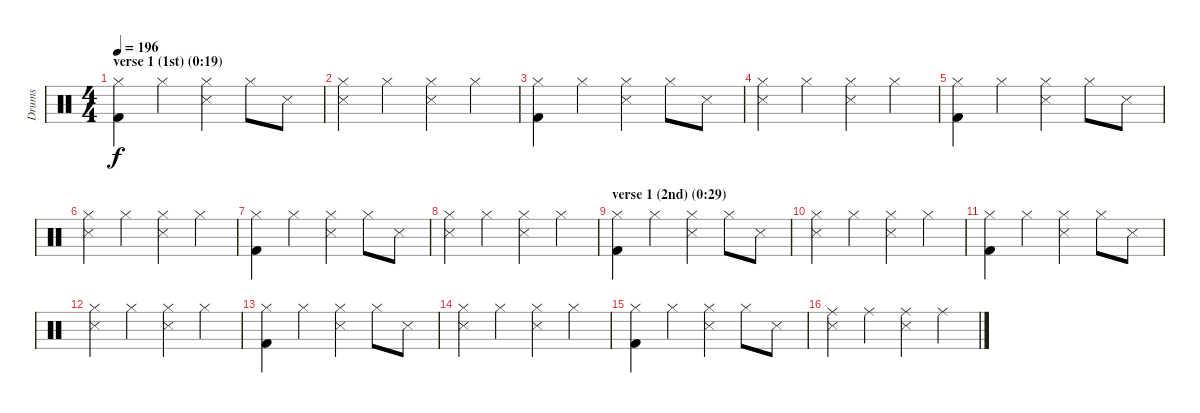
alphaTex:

\track ("Drums" "Drums") {instrument percussion}
\staff {score}
\articulation defaults
\ts (4 4)
\section ("" "verse 1 (1st) (0:19)")
\tempo 196
\clef neutral
\ks c
("Hi-Hat (closed)" "Kick (hit) 2").4{dy f} "Hi-Hat (closed)".4 ("Hi-Hat (closed)" "Snare (side stick) 3").4 "Hi-Hat (closed)".8 "Snare (side stick) 3".8 |
("Hi-Hat (closed)" "Snare (side stick) 3").4 "Hi-Hat (closed)".4 ("Hi-Hat (closed)" "Snare (side stick) 3").4 "Hi-Hat (closed)".4 |
("Hi-Hat (closed)" "Kick (hit) 2").4 "Hi-Hat (closed)".4 ("Hi-Hat (closed)" "Snare (side stick) 3").4 "Hi-Hat (closed)".8 "Snare (side stick) 3".8 |
("Hi-Hat (closed)" "Snare (side stick) 3").4 "Hi-Hat (closed)".4 ("Hi-Hat (closed)" "Snare (side stick) 3").4 "Hi-Hat (closed)".4 |
("Hi-Hat (closed)" "Kick (hit) 2").4 "Hi-Hat (closed)".4 ("Hi-Hat (closed)" "Snare (side stick) 3").4 "Hi-Hat (closed)".8 "Snare (side stick) 3".8 |
("Hi-Hat (closed)" "Snare (side stick) 3").4 "Hi-Hat (closed)".4 ("Hi-Hat (closed)" "Snare (side stick) 3").4 "Hi-Hat (closed)".4 |
("Hi-Hat (closed)" "Kick (hit) 2").4 "Hi-Hat (closed)".4 ("Hi-Hat (closed)" "Snare (side stick) 3").4 "Hi-Hat (closed)".8 "Snare (side stick) 3".8 |
("Hi-Hat (closed)" "Snare (side stick) 3").4 "Hi-Hat (closed)".4 ("Hi-Hat (closed)" "Snare (side stick) 3").4 "Hi-Hat (closed)".4 |
\section ("" "verse 1 (2nd) (0:29)")
("Hi-Hat (closed)" "Kick (hit) 2").4 "Hi-Hat (closed)".4 ("Hi-Hat (closed)" "Snare (side stick) 3").4 "Hi-Hat (closed)".8 "Snare (side stick) 3".8 |
("Hi-Hat (closed)" "Snare (side stick) 3").4 "Hi-Hat (closed)".4 ("Hi-Hat (closed)" "Snare (side stick) 3").4 "Hi-Hat (closed)".4 |
("Hi-Hat (closed)" "Kick (hit) 2").4 "Hi-Hat (closed)".4 ("Hi-Hat (closed)" "Snare (side stick) 3").4 "Hi-Hat (closed)".8 "Snare (side stick) 3".8 |
("Hi-Hat (closed)" "Snare (side stick) 3").4 "Hi-Hat (closed)".4 ("Hi-Hat (closed)" "Snare (side stick) 3").4 "Hi-Hat (closed)".4 |
("Hi-Hat (closed)" "Kick (hit) 2").4 "Hi-Hat (closed)".4 ("Hi-Hat (closed)" "Snare (side stick) 3").4 "Hi-Hat (closed)".8 "Snare (side stick) 3".8 |
("Hi-Hat (closed)" "Snare (side stick) 3").4 "Hi-Hat (closed)".4 ("Hi-Hat (closed)" "Snare (side stick) 3").4 "Hi-Hat (closed)".4 |
("Hi-Hat (closed)" "Kick (hit) 2").4 "Hi-Hat (closed)".4 ("Hi-Hat (closed)" "Snare (side stick) 3").4 "Hi-Hat (closed)".8 "Snare (side stick) 3".8 |
("Ride (middle)" "Snare (side stick) 3").4 "Ride (middle)".4 ("Ride (middle)" "Snare (side stick) 3").4 "Ride (middle)".4
